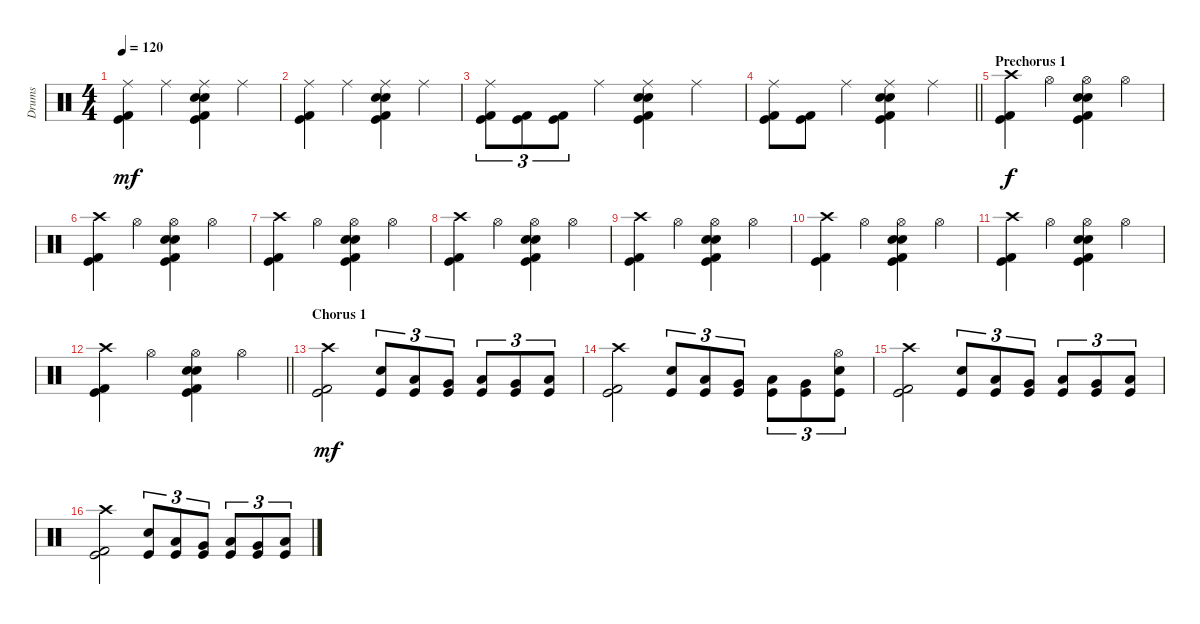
\track ("Drums" "Drums") {instrument percussion}
\staff {score}
\articulation defaults
\ts (4 4)
\tempo 120
\clef neutral
\ks c
("Ride (middle)" "Kick (hit) 2" "Kick (hit)").4{dy mf} "Ride (middle)".4 ("Ride (middle)" "Electric Snare (hit)" "Electric Snare (hit)" "Kick (hit) 2" "Kick (hit)").4 "Ride (middle)".4 |
("Ride (middle)" "Kick (hit) 2" "Kick (hit)").4 "Ride (middle)".4 ("Ride (middle)" "Electric Snare (hit)" "Electric Snare (hit)" "Kick (hit) 2" "Kick (hit)").4 "Ride (middle)".4 |
("Ride (middle)" "Kick (hit) 2" "Kick (hit)").8{tu (3 2)} ("Kick (hit) 2" "Kick (hit)").8{tu (3 2)} ("Kick (hit) 2" "Kick (hit)").8{tu (3 2)} "Ride (middle)".4 ("Ride (middle)" "Electric Snare (hit)" "Electric Snare (hit)" "Kick (hit) 2" "Kick (hit)").4 "Ride (middle)".4 |
\barLineRight lightlight
("Ride (middle)" "Kick (hit) 2" "Kick (hit)").8 ("Kick (hit) 2" "Kick (hit)").8 "Ride (middle)".4 ("Ride (middle)" "Electric Snare (hit)" "Electric Snare (hit)" "Kick (hit) 2" "Kick (hit)").4 "Ride (middle)".4 |
\section ("" "Prechorus 1")
("Crash high (hit)" "Kick (hit) 2" "Kick (hit)").4{dy f} "Hi-Hat (open)".4 ("Hi-Hat (open)" "Electric Snare (hit)" "Electric Snare (hit)" "Kick (hit) 2" "Kick (hit)").4 "Hi-Hat (open)".4 |
("Crash high (hit)" "Kick (hit) 2" "Kick (hit)").4 "Hi-Hat (open)".4 ("Hi-Hat (open)" "Electric Snare (hit)" "Electric Snare (hit)" "Kick (hit) 2" "Kick (hit)").4 "Hi-Hat (open)".4 |
("Crash high (hit)" "Kick (hit) 2" "Kick (hit)").4 "Hi-Hat (open)".4 ("Hi-Hat (open)" "Electric Snare (hit)" "Electric Snare (hit)" "Kick (hit) 2" "Kick (hit)").4 "Hi-Hat (open)".4 |
("Crash high (hit)" "Kick (hit) 2" "Kick (hit)").4 "Hi-Hat (open)".4 ("Hi-Hat (open)" "Electric Snare (hit)" "Electric Snare (hit)" "Kick (hit) 2" "Kick (hit)").4 "Hi-Hat (open)".4 |
("Crash high (hit)" "Kick (hit) 2" "Kick (hit)").4 "Hi-Hat (open)".4 ("Hi-Hat (open)" "Electric Snare (hit)" "Electric Snare (hit)" "Kick (hit) 2" "Kick (hit)").4 "Hi-Hat (open)".4 |
("Crash high (hit)" "Kick (hit) 2" "Kick (hit)").4 "Hi-Hat (open)".4 ("Hi-Hat (open)" "Electric Snare (hit)" "Electric Snare (hit)" "Kick (hit) 2" "Kick (hit)").4 "Hi-Hat (open)".4 |
("Crash high (hit)" "Kick (hit) 2" "Kick (hit)").4 "Hi-Hat (open)".4 ("Hi-Hat (open)" "Electric Snare (hit)" "Electric Snare (hit)" "Kick (hit) 2" "Kick (hit)").4 "Hi-Hat (open)".4 |
\barLineRight lightlight
("Crash high (hit)" "Kick (hit) 2" "Kick (hit)").4 "Hi-Hat (open)".4 ("Hi-Hat (open)" "Electric Snare (hit)" "Electric Snare (hit)" "Kick (hit) 2" "Kick (hit)").4 "Hi-Hat (open)".4 |
\section ("" "Chorus 1")
("Crash high (hit)" "Kick (hit)" "Kick (hit) 2").2{dy mf} ("Electric Snare (hit)" "Kick (hit)").8{tu (3 2)} ("Low Tom (hit)" "Kick (hit)").8{tu (3 2)} ("Very Low Tom (hit)" "Kick (hit)").8{tu (3 2)} ("Low Tom (hit)" "Kick (hit)").8{tu (3 2)} ("Very Low Tom (hit)" "Kick (hit)").8{tu (3 2)} ("Low Floor Tom (hit)" "Kick (hit)").8{tu (3 2)} |
("Crash high (hit)" "Kick (hit)" "Kick (hit) 2").2 ("Electric Snare (hit)" "Kick (hit)").8{tu (3 2)} ("Low Tom (hit)" "Kick (hit)").8{tu (3 2)} ("Very Low Tom (hit)" "Kick (hit)").8{tu (3 2)} ("Low Tom (hit)" "Kick (hit)").8{tu (3 2)} ("Very Low Tom (hit)" "Kick (hit)").8{tu (3 2)} ("Hi-Hat (open)" "Electric Snare (hit)" "Kick (hit)").8{tu (3 2)} |
("Crash high (hit)" "Kick (hit)" "Kick (hit) 2").2 ("Electric Snare (hit)" "Kick (hit)").8{tu (3 2)} ("Low Tom (hit)" "Kick (hit)").8{tu (3 2)} ("Very Low Tom (hit)" "Kick (hit)").8{tu (3 2)} ("Low Tom (hit)" "Kick (hit)").8{tu (3 2)} ("Very Low Tom (hit)" "Kick (hit)").8{tu (3 2)} ("Low Floor Tom (hit)" "Kick (hit)").8{tu (3 2)} |
("Crash high (hit)" "Kick (hit)" "Kick (hit) 2").2 ("Electric Snare (hit)" "Kick (hit)").8{tu (3 2)} ("Low Tom (hit)" "Kick (hit)").8{tu (3 2)} ("Very Low Tom (hit)" "Kick (hit)").8{tu (3 2)} ("Low Tom (hit)" "Kick (hit)").8{tu (3 2)} ("Very Low Tom (hit)" "Kick (hit)").8{tu (3 2)} ("Low Floor Tom (hit)" "Kick (hit)").8{tu (3 2)}
